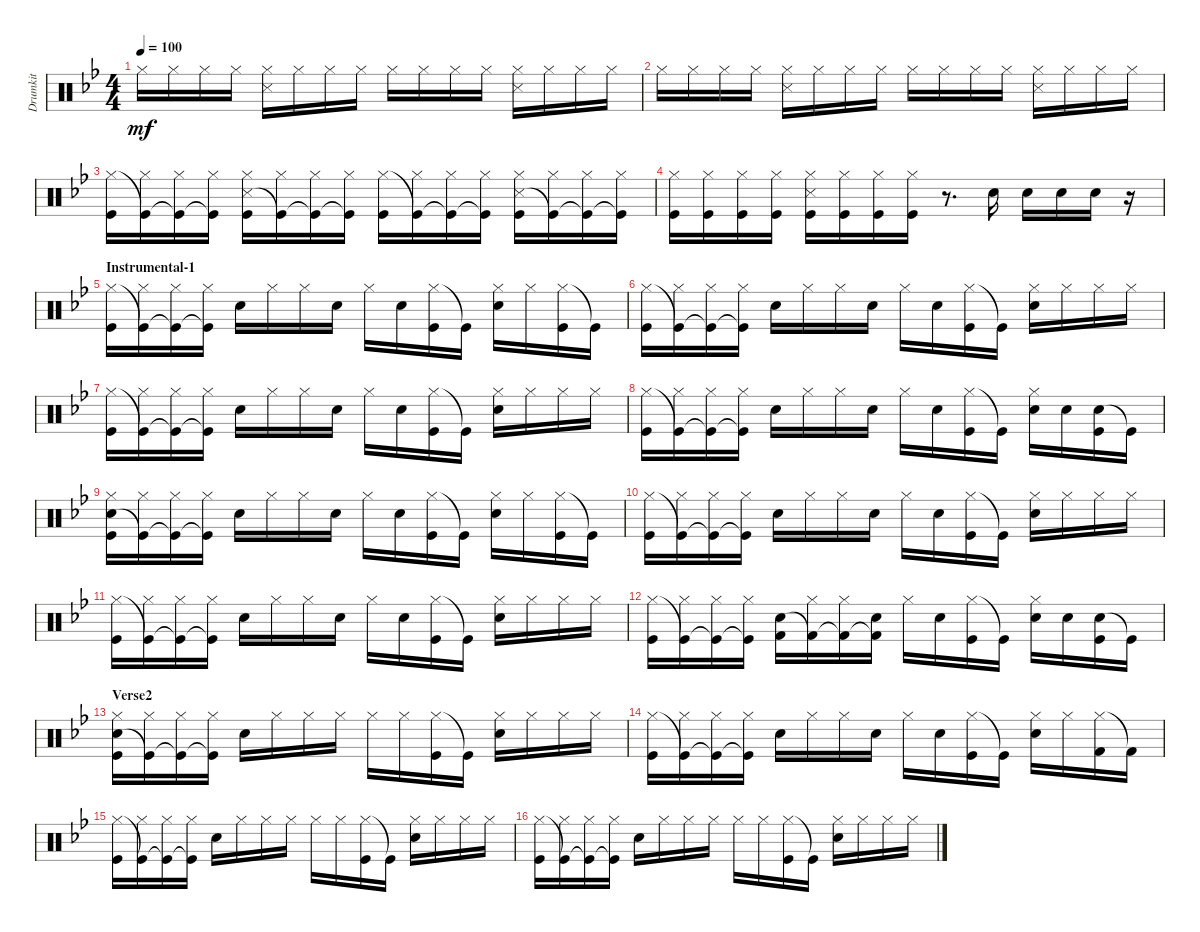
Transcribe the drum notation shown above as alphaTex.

\track ("Drumkit" "Drumkit") {instrument percussion}
\staff {score}
\articulation defaults
\ts (4 4)
\tempo 100
\clef neutral
\ks gminor "Hi-Hat (closed)".16{dy mf} "Hi-Hat (closed)".16 "Hi-Hat (closed)".16 "Hi-Hat (closed)".16
("Snare (side stick) 3" "Hi-Hat (closed)").16 "Hi-Hat (closed)".16 "Hi-Hat (closed)".16 "Hi-Hat (closed)".16 "Hi-Hat (closed)".16 "Hi-Hat (closed)".16 "Hi-Hat (closed)".16 "Hi-Hat (closed)".16 ("Snare (side stick) 3" "Hi-Hat (closed)").16 "Hi-Hat (closed)".16 "Hi-Hat (closed)".16 "Hi-Hat (closed)".16 |
"Hi-Hat (closed)".16 "Hi-Hat (closed)".16 "Hi-Hat (closed)".16 "Hi-Hat (closed)".16 ("Snare (side stick) 3" "Hi-Hat (closed)").16 "Hi-Hat (closed)".16 "Hi-Hat (closed)".16 "Hi-Hat (closed)".16 "Hi-Hat (closed)".16 "Hi-Hat (closed)".16 "Hi-Hat (closed)".16 "Hi-Hat (closed)".16 ("Snare (side stick) 3" "Hi-Hat (closed)").16 "Hi-Hat (closed)".16 "Hi-Hat (closed)".16 "Hi-Hat (closed)".16 |
("Hi-Hat (closed)" "Kick (hit)").16 ("Kick (hit)"{t} "Hi-Hat (closed)").16 ("Kick (hit)"{t} "Hi-Hat (closed)").16 ("Kick (hit)"{t} "Hi-Hat (closed)").16 ("Snare (side stick) 3" "Hi-Hat (closed)" "Kick (hit)").16 ("Kick (hit)"{t} "Hi-Hat (closed)").16 ("Kick (hit)"{t} "Hi-Hat (closed)").16 ("Kick (hit)"{t} "Hi-Hat (closed)").16 ("Hi-Hat (closed)" "Kick (hit)").16 ("Kick (hit)"{t} "Hi-Hat (closed)").16 ("Kick (hit)"{t} "Hi-Hat (closed)").16 ("Kick (hit)"{t} "Hi-Hat (closed)").16 ("Snare (side stick) 3" "Hi-Hat (closed)" "Kick (hit)").16 ("Kick (hit)"{t} "Hi-Hat (closed)").16 ("Kick (hit)"{t} "Hi-Hat (closed)").16 ("Kick (hit)"{t} "Hi-Hat (closed)").16 |
("Kick (hit)" "Hi-Hat (closed)").16 ("Kick (hit)" "Hi-Hat (closed)").16 ("Kick (hit)" "Hi-Hat (closed)").16 ("Kick (hit)" "Hi-Hat (closed)").16 ("Kick (hit)" "Snare (side stick) 3" "Hi-Hat (closed)").16 ("Kick (hit)" "Hi-Hat (closed)").16 ("Kick (hit)" "Hi-Hat (closed)").16 ("Kick (hit)" "Hi-Hat (closed)").16 r.8{d} "Snare (hit) 2".16 "Electric Snare (hit)".16 "Electric Snare (hit)".16 "Snare (hit) 2".16 r.16 |
\section ("" "Instrumental-1")
("Hi-Hat (closed)" "Kick (hit)").16 ("Kick (hit)"{t} "Hi-Hat (closed)").16 ("Kick (hit)"{t} "Hi-Hat (closed)").16 ("Kick (hit)"{t} "Hi-Hat (closed)").16 "Snare (hit) 2".16 "Hi-Hat (closed)".16 "Hi-Hat (closed)".16 "Electric Snare (hit)".16 "Hi-Hat (closed)".16 "Electric Snare (hit)".16 ("Hi-Hat (closed)" "Kick (hit)").16 "Kick (hit)"{t}.16 ("Hi-Hat (closed)" "Snare (hit) 2").16 "Hi-Hat (closed)".16 ("Hi-Hat (closed)" "Kick (hit)").16 "Kick (hit)"{t}.16 |
("Hi-Hat (closed)" "Kick (hit)").16 ("Kick (hit)"{t} "Hi-Hat (closed)").16 ("Kick (hit)"{t} "Hi-Hat (closed)").16 ("Kick (hit)"{t} "Hi-Hat (closed)").16 "Snare (hit) 2".16 "Hi-Hat (closed)".16 "Hi-Hat (closed)".16 "Electric Snare (hit)".16 "Hi-Hat (closed)".16 "Electric Snare (hit)".16 ("Hi-Hat (closed)" "Kick (hit)").16 "Kick (hit)"{t}.16 ("Hi-Hat (closed)" "Snare (hit) 2").16 "Hi-Hat (closed)".16 "Hi-Hat (closed)".16 "Hi-Hat (closed)".16 |
("Hi-Hat (closed)" "Kick (hit)").16 ("Kick (hit)"{t} "Hi-Hat (closed)").16 ("Kick (hit)"{t} "Hi-Hat (closed)").16 ("Kick (hit)"{t} "Hi-Hat (closed)").16 "Snare (hit) 2".16 "Hi-Hat (closed)".16 "Hi-Hat (closed)".16 "Electric Snare (hit)".16 "Hi-Hat (closed)".16 "Electric Snare (hit)".16 ("Hi-Hat (closed)" "Kick (hit)").16 "Kick (hit)"{t}.16 ("Hi-Hat (closed)" "Snare (hit) 2").16 "Hi-Hat (closed)".16 "Hi-Hat (closed)".16 "Hi-Hat (closed)".16 |
("Hi-Hat (closed)" "Kick (hit)").16 ("Kick (hit)"{t} "Hi-Hat (closed)").16 ("Kick (hit)"{t} "Hi-Hat (closed)").16 ("Kick (hit)"{t} "Hi-Hat (closed)").16 "Snare (hit) 2".16 "Hi-Hat (closed)".16 "Hi-Hat (closed)".16 "Electric Snare (hit)".16 "Hi-Hat (closed)".16 "Electric Snare (hit)".16 ("Hi-Hat (closed)" "Kick (hit)").16 "Kick (hit)"{t}.16 ("Hi-Hat (closed)" "Snare (hit) 2").16 "Snare (hit) 2".16 ("Snare (hit) 2" "Kick (hit)").16 "Kick (hit)"{t}.16 |
("Snare (hit) 2" "Hi-Hat (closed)" "Kick (hit)").16 ("Kick (hit)"{t} "Hi-Hat (closed)").16 ("Kick (hit)"{t} "Hi-Hat (closed)").16 ("Kick (hit)"{t} "Hi-Hat (closed)").16 "Snare (hit) 2".16 "Hi-Hat (closed)".16 "Hi-Hat (closed)".16 "Electric Snare (hit)".16 "Hi-Hat (closed)".16 "Electric Snare (hit)".16 ("Hi-Hat (closed)" "Kick (hit)").16 "Kick (hit)"{t}.16 ("Hi-Hat (closed)" "Snare (hit) 2").16 "Hi-Hat (closed)".16 ("Hi-Hat (closed)" "Kick (hit)").16 "Kick (hit)"{t}.16 |
("Hi-Hat (closed)" "Kick (hit)").16 ("Kick (hit)"{t} "Hi-Hat (closed)").16 ("Kick (hit)"{t} "Hi-Hat (closed)").16 ("Kick (hit)"{t} "Hi-Hat (closed)").16 "Snare (hit) 2".16 "Hi-Hat (closed)".16 "Hi-Hat (closed)".16 "Electric Snare (hit)".16 "Hi-Hat (closed)".16 "Electric Snare (hit)".16 ("Hi-Hat (closed)" "Kick (hit)").16 "Kick (hit)"{t}.16 ("Hi-Hat (closed)" "Snare (hit) 2").16 "Hi-Hat (closed)".16 "Hi-Hat (closed)".16 "Hi-Hat (closed)".16 |
("Hi-Hat (closed)" "Kick (hit)").16 ("Kick (hit)"{t} "Hi-Hat (closed)").16 ("Kick (hit)"{t} "Hi-Hat (closed)").16 ("Kick (hit)"{t} "Hi-Hat (closed)").16 "Snare (hit) 2".16 "Hi-Hat (closed)".16 "Hi-Hat (closed)".16 "Electric Snare (hit)".16 "Hi-Hat (closed)".16 "Electric Snare (hit)".16 ("Hi-Hat (closed)" "Kick (hit)").16 "Kick (hit)"{t}.16 ("Hi-Hat (closed)" "Snare (hit) 2").16 "Hi-Hat (closed)".16 "Hi-Hat (closed)".16 "Hi-Hat (closed)".16 |
("Hi-Hat (closed)" "Kick (hit)").16 ("Kick (hit)"{t} "Hi-Hat (closed)").16 ("Kick (hit)"{t} "Hi-Hat (closed)").16 ("Kick (hit)"{t} "Hi-Hat (closed)").16 ("Snare (hit) 2" "Kick (hit) 2").16 ("Kick (hit) 2"{t} "Hi-Hat (closed)").16 ("Kick (hit) 2"{t} "Hi-Hat (closed)").16 ("Kick (hit) 2"{t} "Electric Snare (hit)").16 "Hi-Hat (closed)".16 "Electric Snare (hit)".16 ("Hi-Hat (closed)" "Kick (hit)").16 "Kick (hit)"{t}.16 ("Hi-Hat (closed)" "Snare (hit) 2").16 "Snare (hit) 2".16 ("Snare (hit) 2" "Kick (hit)").16 "Kick (hit)"{t}.16 |
\section ("" "Verse2")
("Snare (hit) 2" "Hi-Hat (closed)" "Kick (hit)").16 ("Kick (hit)"{t} "Hi-Hat (closed)").16 ("Kick (hit)"{t} "Hi-Hat (closed)").16 ("Kick (hit)"{t} "Hi-Hat (closed)").16 "Snare (hit) 2".16 "Hi-Hat (closed)".16 "Hi-Hat (closed)".16 "Hi-Hat (closed)".16 "Hi-Hat (closed)".16 "Hi-Hat (closed)".16 ("Hi-Hat (closed)" "Kick (hit)").16 "Kick (hit)"{t}.16 ("Hi-Hat (closed)" "Snare (hit) 2").16 "Hi-Hat (closed)".16 "Hi-Hat (closed)".16 "Hi-Hat (closed)".16 |
("Hi-Hat (closed)" "Kick (hit)").16 ("Kick (hit)"{t} "Hi-Hat (closed)").16 ("Kick (hit)"{t} "Hi-Hat (closed)").16 ("Kick (hit)"{t} "Hi-Hat (closed)").16 "Snare (hit) 2".16 "Hi-Hat (closed)".16 "Hi-Hat (closed)".16 "Electric Snare (hit)".16 "Hi-Hat (closed)".16 "Electric Snare (hit)".16 ("Hi-Hat (closed)" "Kick (hit)").16 "Kick (hit)"{t}.16 ("Hi-Hat (closed)" "Snare (hit) 2").16 "Hi-Hat (closed)".16 ("Hi-Hat (closed)" "Kick (hit) 2").16 "Kick (hit) 2"{t}.16 |
("Hi-Hat (closed)" "Kick (hit)").16 ("Kick (hit)"{t} "Hi-Hat (closed)").16 ("Kick (hit)"{t} "Hi-Hat (closed)").16 ("Kick (hit)"{t} "Hi-Hat (closed)").16 "Snare (hit) 2".16 "Hi-Hat (closed)".16 "Hi-Hat (closed)".16 "Hi-Hat (closed)".16 "Hi-Hat (closed)".16 "Hi-Hat (closed)".16 ("Hi-Hat (closed)" "Kick (hit)").16 "Kick (hit)"{t}.16 ("Hi-Hat (closed)" "Snare (hit) 2").16 "Hi-Hat (closed)".16 "Hi-Hat (closed)".16 "Hi-Hat (closed)".16 |
("Hi-Hat (closed)" "Kick (hit)").16 ("Kick (hit)"{t} "Hi-Hat (closed)").16 ("Kick (hit)"{t} "Hi-Hat (closed)").16 ("Kick (hit)"{t} "Hi-Hat (closed)").16 "Snare (hit) 2".16 "Hi-Hat (closed)".16 "Hi-Hat (closed)".16 "Hi-Hat (closed)".16 "Hi-Hat (closed)".16 "Hi-Hat (closed)".16 ("Hi-Hat (closed)" "Kick (hit)").16 "Kick (hit)"{t}.16 ("Hi-Hat (closed)" "Snare (hit) 2").16 "Hi-Hat (closed)".16 "Hi-Hat (closed)".16 "Hi-Hat (closed)".16
